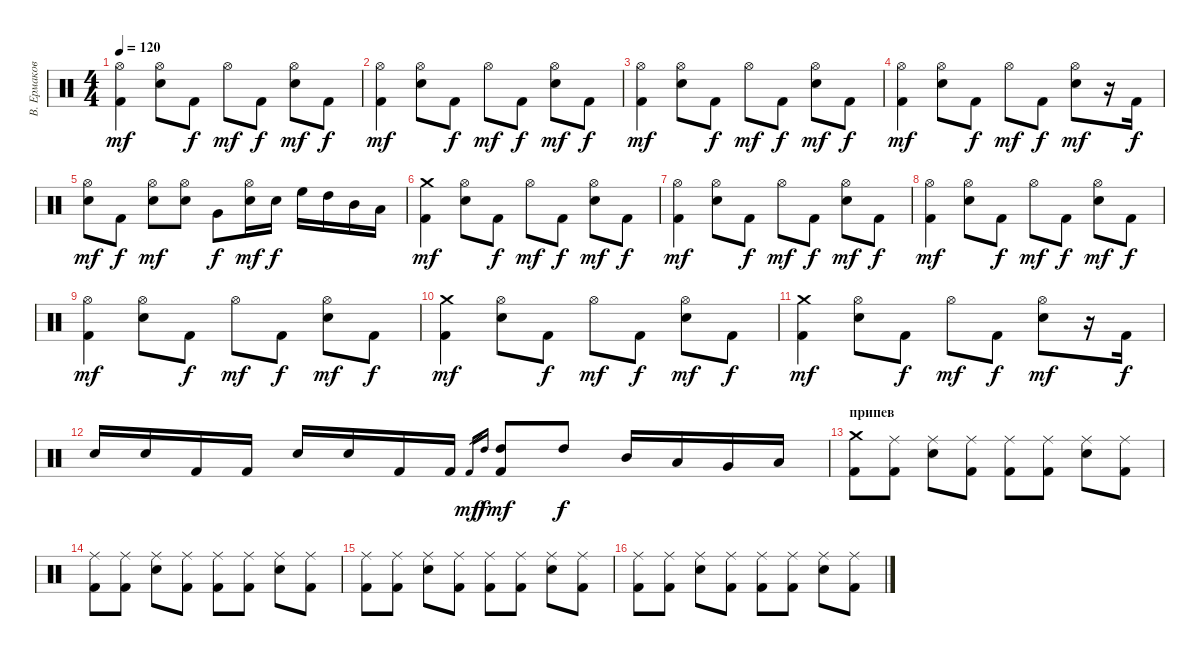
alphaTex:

\track ("В. Ермаков" "В. Ермаков") {instrument percussion}
\staff {score}
\articulation defaults
\ts (4 4)
\tempo 120
\clef neutral
\ks c
("Hi-Hat (open)" "Kick (hit) 2").4{dy mf} ("Hi-Hat (open)" "Electric Snare (hit)").8 "Kick (hit) 2".8{dy f} "Hi-Hat (open)".8{dy mf} "Kick (hit) 2".8{dy f} ("Hi-Hat (open)" "Electric Snare (hit)").8{dy mf} "Kick (hit) 2".8{dy f} |
("Hi-Hat (open)" "Kick (hit) 2").4{dy mf} ("Hi-Hat (open)" "Electric Snare (hit)").8 "Kick (hit) 2".8{dy f} "Hi-Hat (open)".8{dy mf} "Kick (hit) 2".8{dy f} ("Hi-Hat (open)" "Electric Snare (hit)").8{dy mf} "Kick (hit) 2".8{dy f} |
("Hi-Hat (open)" "Kick (hit) 2").4{dy mf} ("Hi-Hat (open)" "Electric Snare (hit)").8 "Kick (hit) 2".8{dy f} "Hi-Hat (open)".8{dy mf} "Kick (hit) 2".8{dy f} ("Hi-Hat (open)" "Electric Snare (hit)").8{dy mf} "Kick (hit) 2".8{dy f} |
("Hi-Hat (open)" "Kick (hit) 2").4{dy mf} ("Hi-Hat (open)" "Electric Snare (hit)").8 "Kick (hit) 2".8{dy f} "Hi-Hat (open)".8{dy mf} "Kick (hit) 2".8{dy f} ("Hi-Hat (open)" "Electric Snare (hit)").8{dy mf} r.16 "Kick (hit) 2".16{dy f} |
("Hi-Hat (open)" "Electric Snare (hit)").8{dy mf} "Kick (hit) 2".8{dy f} ("Hi-Hat (open)" "Electric Snare (hit)").8{dy mf} ("Hi-Hat (open)" "Electric Snare (hit)").8 "Very Low Tom (hit)".8{dy f} ("Hi-Hat (open)" "Electric Snare (hit)").16{dy mf} "Electric Snare (hit)".16{dy f} "High Floor Tom (hit)".16 "High Tom (hit)".16 "Mid Tom (hit)".16 "Low Tom (hit)".16 |
("Crash medium (hit)" "Kick (hit) 2").4{dy mf} ("Hi-Hat (open)" "Electric Snare (hit)").8 "Kick (hit) 2".8{dy f} "Hi-Hat (open)".8{dy mf} "Kick (hit) 2".8{dy f} ("Hi-Hat (open)" "Electric Snare (hit)").8{dy mf} "Kick (hit) 2".8{dy f} |
("Hi-Hat (open)" "Kick (hit) 2").4{dy mf} ("Hi-Hat (open)" "Electric Snare (hit)").8 "Kick (hit) 2".8{dy f} "Hi-Hat (open)".8{dy mf} "Kick (hit) 2".8{dy f} ("Hi-Hat (open)" "Electric Snare (hit)").8{dy mf} "Kick (hit) 2".8{dy f} |
("Hi-Hat (open)" "Kick (hit) 2").4{dy mf} ("Hi-Hat (open)" "Electric Snare (hit)").8 "Kick (hit) 2".8{dy f} "Hi-Hat (open)".8{dy mf} "Kick (hit) 2".8{dy f} ("Hi-Hat (open)" "Electric Snare (hit)").8{dy mf} "Kick (hit) 2".8{dy f} |
("Hi-Hat (open)" "Kick (hit) 2").4{dy mf} ("Hi-Hat (open)" "Electric Snare (hit)").8 "Kick (hit) 2".8{dy f} "Hi-Hat (open)".8{dy mf} "Kick (hit) 2".8{dy f} ("Hi-Hat (open)" "Electric Snare (hit)").8{dy mf} "Kick (hit) 2".8{dy f} |
("Crash medium (hit)" "Kick (hit) 2").4{dy mf} ("Hi-Hat (open)" "Electric Snare (hit)").8 "Kick (hit) 2".8{dy f} "Hi-Hat (open)".8{dy mf} "Kick (hit) 2".8{dy f} ("Hi-Hat (open)" "Electric Snare (hit)").8{dy mf} "Kick (hit) 2".8{dy f} |
("Crash medium (hit)" "Kick (hit) 2").4{dy mf} ("Hi-Hat (open)" "Electric Snare (hit)").8 "Kick (hit) 2".8{dy f} "Hi-Hat (open)".8{dy mf} "Kick (hit) 2".8{dy f} ("Hi-Hat (open)" "Electric Snare (hit)").8{dy mf} r.16 "Kick (hit) 2".16{dy f} |
"Electric Snare (hit)".16 "Electric Snare (hit)".16 "Kick (hit) 2".16 "Kick (hit) 2".16 "Electric Snare (hit)".16 "Electric Snare (hit)".16 "Kick (hit) 2".16 "Kick (hit) 2".16 "Kick (hit) 2".16{gr dy mf} "High Tom (hit)".16{gr dy f} ("Kick (hit) 2" "High Tom (hit)").8{dy mf} "High Tom (hit)".8{dy f} "Mid Tom (hit)".16 "Low Tom (hit)".16 "Very Low Tom (hit)".16 "Low Floor Tom (hit)".16 |
\section ("" "припев")
("Crash medium (hit)" "Kick (hit) 2").8 ("Ride (middle)" "Kick (hit) 2").8 ("Ride (middle)" "Electric Snare (hit)").8 ("Ride (middle)" "Kick (hit) 2").8 ("Ride (middle)" "Kick (hit) 2").8 ("Ride (middle)" "Kick (hit) 2").8 ("Ride (middle)" "Electric Snare (hit)").8 ("Ride (middle)" "Kick (hit) 2").8 |
("Ride (middle)" "Kick (hit) 2").8 ("Ride (middle)" "Kick (hit) 2").8 ("Ride (middle)" "Electric Snare (hit)").8 ("Ride (middle)" "Kick (hit) 2").8 ("Ride (middle)" "Kick (hit) 2").8 ("Ride (middle)" "Kick (hit) 2").8 ("Ride (middle)" "Electric Snare (hit)").8 ("Ride (middle)" "Kick (hit) 2").8 |
("Ride (middle)" "Kick (hit) 2").8 ("Ride (middle)" "Kick (hit) 2").8 ("Ride (middle)" "Electric Snare (hit)").8 ("Ride (middle)" "Kick (hit) 2").8 ("Ride (middle)" "Kick (hit) 2").8 ("Ride (middle)" "Kick (hit) 2").8 ("Ride (middle)" "Electric Snare (hit)").8 ("Ride (middle)" "Kick (hit) 2").8 |
("Ride (middle)" "Kick (hit) 2").8 ("Ride (middle)" "Kick (hit) 2").8 ("Ride (middle)" "Electric Snare (hit)").8 ("Ride (middle)" "Kick (hit) 2").8 ("Ride (middle)" "Kick (hit) 2").8 ("Ride (middle)" "Kick (hit) 2").8 ("Ride (middle)" "Electric Snare (hit)").8 ("Ride (middle)" "Kick (hit) 2").8
